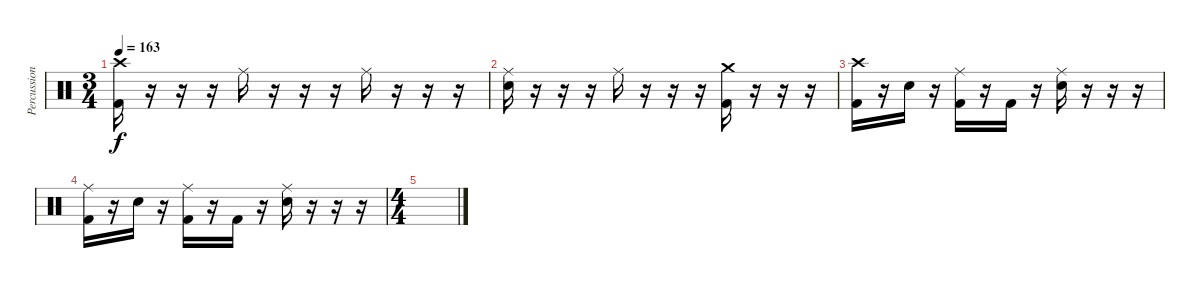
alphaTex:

\track ("Percussion" "Percussion") {instrument percussion}
\staff {score}
\articulation defaults
\ts (3 4)
\tempo 163
\clef neutral
\ks c
("Crash high (hit)" "Kick (hit) 2").16{dy f} r.16 r.16 r.16 "Ride (middle)".16 r.16 r.16 r.16 "Ride (middle)".16 r.16 r.16 r.16 |
("Ride (middle)" "Snare (hit) 2").16 r.16 r.16 r.16 "Ride (middle)".16 r.16 r.16 r.16 ("Crash medium (hit)" "Kick (hit) 2").16 r.16 r.16 r.16 |
("Crash high (hit)" "Kick (hit) 2").16 r.16 "Snare (hit) 2".16 r.16 ("Ride (middle)" "Kick (hit) 2").16 r.16 "Kick (hit) 2".16 r.16 ("Ride (middle)" "Snare (hit) 2").16 r.16 r.16 r.16 |
("Ride (middle)" "Kick (hit) 2").16 r.16 "Snare (hit) 2".16 r.16 ("Ride (middle)" "Kick (hit) 2").16 r.16 "Kick (hit) 2".16 r.16 ("Ride (middle)" "Snare (hit) 2").16 r.16 r.16 r.16 |
\ts (4 4)
